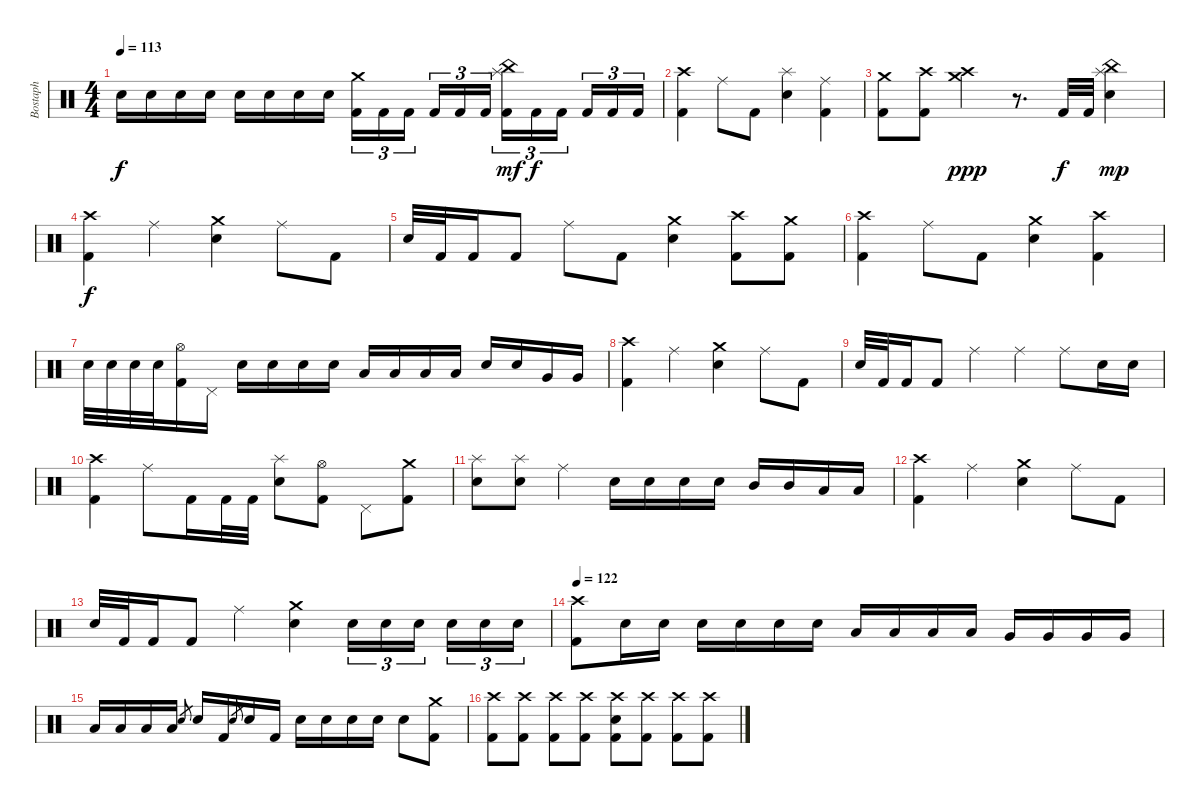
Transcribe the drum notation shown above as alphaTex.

\track ("Bostaph" "Bostaph") {instrument percussion}
\staff {score}
\articulation defaults
\ts (4 4)
\tempo 113
\clef neutral
\ks c "Electric Snare (hit)".16{dy f} "Electric Snare (hit)".16 "Electric Snare (hit)".16 "Electric Snare (hit)".16 "Electric Snare (hit)".16 "Electric Snare (hit)".16 "Electric Snare (hit)".16 "Electric Snare (hit)".16
("Crash medium (hit)" "Kick (hit) 2").16{tu (3 2)} "Kick (hit) 2".16{tu (3 2)} "Kick (hit) 2".16{tu (3 2)} "Kick (hit) 2".16{tu (3 2)} "Kick (hit) 2".16{tu (3 2)} "Kick (hit) 2".16{tu (3 2)} ("Splash (hit)" "China (hit)" "Kick (hit) 2").16{tu (3 2) dy mf} "Kick (hit) 2".16{tu (3 2) dy f} "Kick (hit) 2".16{tu (3 2)} "Kick (hit) 2".16{tu (3 2)} "Kick (hit) 2".16{tu (3 2)} "Kick (hit) 2".16{tu (3 2)} |
("Crash high (hit)" "Kick (hit) 2").4 "Ride (middle)".8 "Kick (hit) 2".8 ("Splash (hit)" "Electric Snare (hit)").4 ("Kick (hit) 2" "Ride (middle)").4 |
("Crash medium (hit)" "Kick (hit) 2").8 ("Crash high (hit)" "Kick (hit) 2").8 ("Crash medium (hit)" "Crash high (hit)").4{dy ppp} r.8{d} "Kick (hit) 2".32{dy f} "Kick (hit) 2".32 ("China (hit)" "Splash (hit)" "Electric Snare (hit)").4{dy mp} |
("Crash high (hit)" "Kick (hit) 2").4{dy f} "Ride (middle)".4 ("Crash medium (hit)" "Electric Snare (hit)").4 "Ride (middle)".8 "Kick (hit) 2".8 |
"Electric Snare (hit)".32 "Kick (hit) 2".32 "Kick (hit) 2".16 "Kick (hit) 2".8 "Ride (middle)".8 "Kick (hit) 2".8 ("Crash medium (hit)" "Electric Snare (hit)").4 ("Crash high (hit)" "Kick (hit) 2").8 ("Crash medium (hit)" "Kick (hit) 2").8 |
("Crash high (hit)" "Kick (hit) 2").4 "Ride (middle)".8 "Kick (hit) 2".8 ("Crash medium (hit)" "Electric Snare (hit)").4 ("Crash high (hit)" "Kick (hit) 2").4 |
"Electric Snare (hit)".32 "Electric Snare (hit)".32 "Electric Snare (hit)".32 "Electric Snare (hit)".32 ("Hi-Hat (open)" "Kick (hit) 2").16 "Pedal Hi-Hat (hit)".16 "Electric Snare (hit)".16 "Electric Snare (hit)".16 "Electric Snare (hit)".16 "Electric Snare (hit)".16 "Low Tom (hit)".16 "Low Tom (hit)".16 "Low Tom (hit)".16 "Low Tom (hit)".16 "Electric Snare (hit)".16 "Electric Snare (hit)".16 "Very Low Tom (hit)".16 "Very Low Tom (hit)".16 |
("Crash high (hit)" "Kick (hit) 2").4 "Ride (middle)".4 ("Crash medium (hit)" "Electric Snare (hit)").4 "Ride (middle)".8 "Kick (hit) 2".8 |
"Electric Snare (hit)".32 "Kick (hit) 2".32 "Kick (hit) 2".16 "Kick (hit) 2".8 "Ride (middle)".4 "Ride (middle)".4 "Ride (middle)".8 "Electric Snare (hit)".16 "Electric Snare (hit)".16 |
("Crash high (hit)" "Kick (hit) 2").4 "Ride (middle)".8 "Kick (hit) 2".16 "Kick (hit) 2".32 "Kick (hit) 2".32 ("Splash (hit)" "Electric Snare (hit)").8 ("Hi-Hat (open)" "Kick (hit) 2").8 "Pedal Hi-Hat (hit)".8 ("Crash medium (hit)" "Kick (hit) 2").8 |
("Splash (hit)" "Electric Snare (hit)").8 ("Splash (hit)" "Electric Snare (hit)").8 "Ride (middle)".4 "Electric Snare (hit)".16 "Electric Snare (hit)".16 "Electric Snare (hit)".16 "Electric Snare (hit)".16 "Mid Tom (hit)".16 "Mid Tom (hit)".16 "Low Tom (hit)".16 "Low Tom (hit)".16 |
("Crash high (hit)" "Kick (hit) 2").4 "Ride (middle)".4 ("Crash medium (hit)" "Electric Snare (hit)").4 "Ride (middle)".8 "Kick (hit) 2".8 |
"Electric Snare (hit)".32 "Kick (hit) 2".32 "Kick (hit) 2".16 "Kick (hit) 2".8 "Ride (middle)".4 ("Electric Snare (hit)" "Crash medium (hit)").4 "Electric Snare (hit)".16{tu (3 2)} "Electric Snare (hit)".16{tu (3 2)} "Electric Snare (hit)".16{tu (3 2)} "Electric Snare (hit)".16{tu (3 2)} "Electric Snare (hit)".16{tu (3 2)} "Electric Snare (hit)".16{tu (3 2)} |
\tempo 122
("Crash high (hit)" "Kick (hit) 2").8 "Electric Snare (hit)".16 "Electric Snare (hit)".16 "Electric Snare (hit)".16 "Electric Snare (hit)".16 "Electric Snare (hit)".16 "Electric Snare (hit)".16 "Low Tom (hit)".16 "Low Tom (hit)".16 "Low Tom (hit)".16 "Low Tom (hit)".16 "Very Low Tom (hit)".16 "Very Low Tom (hit)".16 "Very Low Tom (hit)".16 "Very Low Tom (hit)".16 |
"Low Floor Tom (hit)".16 "Low Floor Tom (hit)".16 "Low Floor Tom (hit)".16 "Low Floor Tom (hit)".16 "Electric Snare (hit)".8{gr} "Electric Snare (hit)".16 "Kick (hit) 2".16 "Electric Snare (hit)".8{gr} "Electric Snare (hit)".16 "Kick (hit) 2".16 "Electric Snare (hit)".16 "Electric Snare (hit)".16 "Electric Snare (hit)".16 "Electric Snare (hit)".16 "Electric Snare (hit)".8 ("Crash medium (hit)" "Kick (hit) 2").8 |
("Crash high (hit)" "Kick (hit) 2").8 ("Crash high (hit)" "Kick (hit) 2").8 ("Crash high (hit)" "Kick (hit) 2").8 ("Crash high (hit)" "Kick (hit) 2").8 ("Crash high (hit)" "Electric Snare (hit)" "Kick (hit) 2").8 ("Crash high (hit)" "Kick (hit) 2").8 ("Crash high (hit)" "Kick (hit) 2").8 ("Crash high (hit)" "Kick (hit) 2").8
